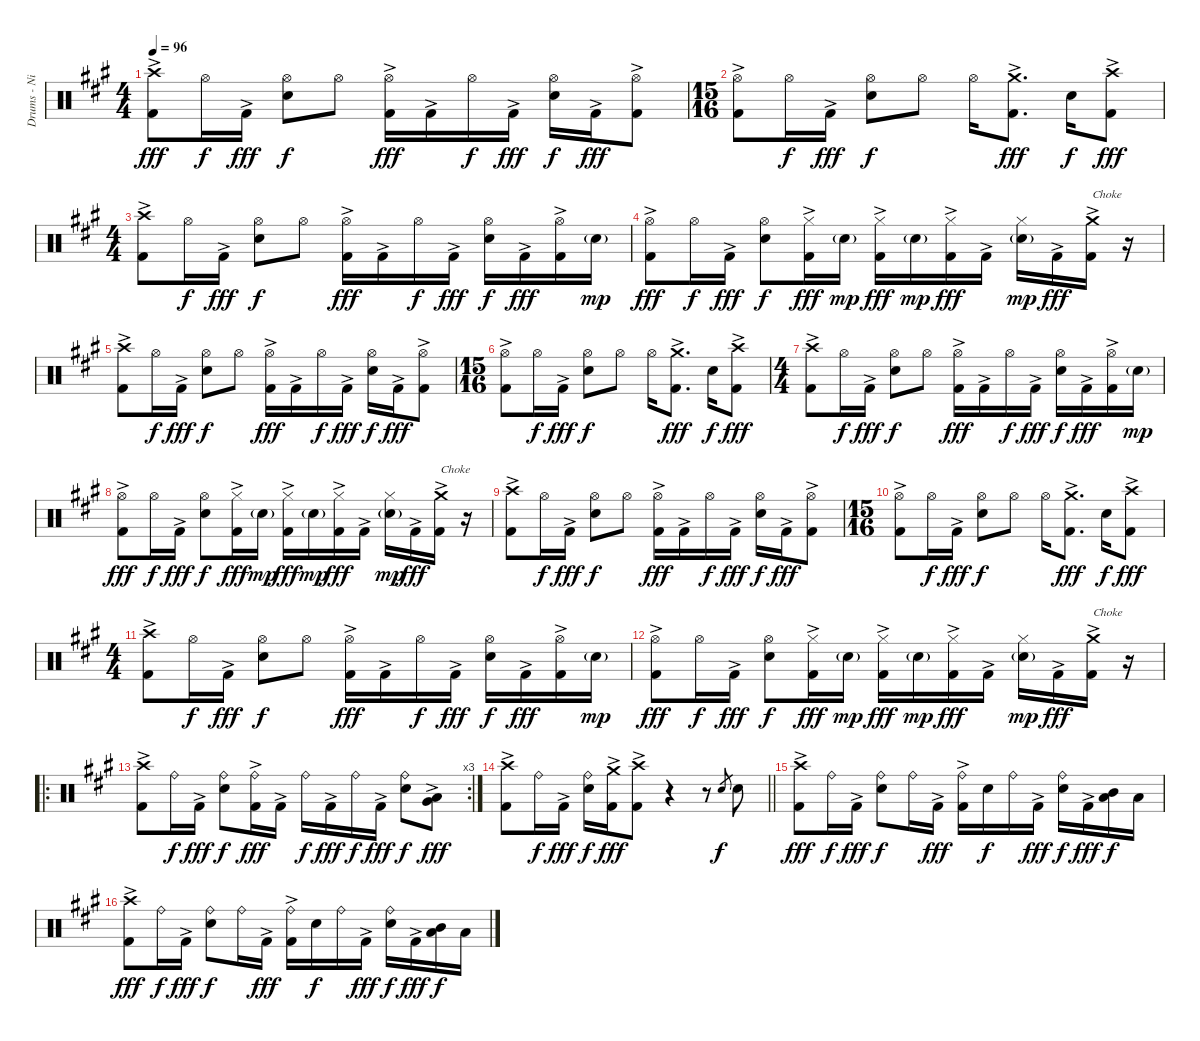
\track ("Drums - Nick Menza" "Drums - Ni") {instrument percussion}
\staff {score}
\articulation defaults
\ts (4 4)
\tempo 96
\clef neutral
\ks f#minor
("Crash high (hit)" "Kick (hit) 2"{ac}).8{dy fff} "Hi-Hat (open)".16{dy f} "Kick (hit) 2"{ac}.16{dy fff} ("Hi-Hat (open)" "Snare (hit) 2").8{dy f} "Hi-Hat (open)".8 ("Hi-Hat (open)" "Kick (hit) 2"{ac}).16{dy fff} "Kick (hit) 2"{ac}.16 "Hi-Hat (open)".16{dy f} "Kick (hit) 2"{ac}.16{dy fff} ("Hi-Hat (open)" "Snare (hit) 2").16{dy f} "Kick (hit) 2"{ac}.16{dy fff} ("Hi-Hat (open)" "Kick (hit) 2"{ac}).8 |
\ts (15 16)
("Hi-Hat (open)" "Kick (hit) 2"{ac}).8 "Hi-Hat (open)".16{dy f} "Kick (hit) 2"{ac}.16{dy fff} ("Hi-Hat (open)" "Snare (hit) 2").8{dy f} "Hi-Hat (open)".8 "Hi-Hat (open)".16 ("Crash medium (hit)" "Kick (hit) 2"{ac}).8{d dy fff} "Snare (hit) 2".16{dy f} ("Crash high (hit)" "Kick (hit) 2"{ac}).8{dy fff} |
\ts (4 4)
("Crash high (hit)" "Kick (hit) 2"{ac}).8 "Hi-Hat (open)".16{dy f} "Kick (hit) 2"{ac}.16{dy fff} ("Hi-Hat (open)" "Snare (hit) 2").8{dy f} "Hi-Hat (open)".8 ("Hi-Hat (open)" "Kick (hit) 2"{ac}).16{dy fff} "Kick (hit) 2"{ac}.16 "Hi-Hat (open)".16{dy f} "Kick (hit) 2"{ac}.16{dy fff} ("Hi-Hat (open)" "Snare (hit) 2").16{dy f} "Kick (hit) 2"{ac}.16{dy fff} ("Hi-Hat (open)" "Kick (hit) 2"{ac}).16 "Snare (hit) 2"{g}.16{dy mp} |
("Hi-Hat (open)" "Kick (hit) 2"{ac}).8{dy fff} "Hi-Hat (open)".16{dy f} "Kick (hit) 2"{ac}.16{dy fff} ("Hi-Hat (open)" "Snare (hit) 2").8{dy f} ("Hi-Hat (closed)" "Kick (hit) 2"{ac}).16{dy fff} "Snare (hit) 2"{g}.16{dy mp} ("Hi-Hat (closed)" "Kick (hit) 2"{ac}).16{dy fff} "Snare (hit) 2"{g}.16{dy mp} ("Hi-Hat (closed)" "Kick (hit) 2"{ac}).16{dy fff} "Kick (hit) 2"{ac}.16 ("Hi-Hat (closed)" "Snare (hit) 2"{g}).16{dy mp} "Kick (hit) 2"{ac}.16{dy fff} ("Crash medium (hit)" "Kick (hit) 2"{ac}).16{txt "Choke"} r.16 |
("Crash high (hit)" "Kick (hit) 2"{ac}).8 "Hi-Hat (open)".16{dy f} "Kick (hit) 2"{ac}.16{dy fff} ("Hi-Hat (open)" "Snare (hit) 2").8{dy f} "Hi-Hat (open)".8 ("Hi-Hat (open)" "Kick (hit) 2"{ac}).16{dy fff} "Kick (hit) 2"{ac}.16 "Hi-Hat (open)".16{dy f} "Kick (hit) 2"{ac}.16{dy fff} ("Hi-Hat (open)" "Snare (hit) 2").16{dy f} "Kick (hit) 2"{ac}.16{dy fff} ("Hi-Hat (open)" "Kick (hit) 2"{ac}).8 |
\ts (15 16)
("Hi-Hat (open)" "Kick (hit) 2"{ac}).8 "Hi-Hat (open)".16{dy f} "Kick (hit) 2"{ac}.16{dy fff} ("Hi-Hat (open)" "Snare (hit) 2").8{dy f} "Hi-Hat (open)".8 "Hi-Hat (open)".16 ("Crash medium (hit)" "Kick (hit) 2"{ac}).8{d dy fff} "Snare (hit) 2".16{dy f} ("Crash high (hit)" "Kick (hit) 2"{ac}).8{dy fff} |
\ts (4 4)
("Crash high (hit)" "Kick (hit) 2"{ac}).8 "Hi-Hat (open)".16{dy f} "Kick (hit) 2"{ac}.16{dy fff} ("Hi-Hat (open)" "Snare (hit) 2").8{dy f} "Hi-Hat (open)".8 ("Hi-Hat (open)" "Kick (hit) 2"{ac}).16{dy fff} "Kick (hit) 2"{ac}.16 "Hi-Hat (open)".16{dy f} "Kick (hit) 2"{ac}.16{dy fff} ("Hi-Hat (open)" "Snare (hit) 2").16{dy f} "Kick (hit) 2"{ac}.16{dy fff} ("Hi-Hat (open)" "Kick (hit) 2"{ac}).16 "Snare (hit) 2"{g}.16{dy mp} |
("Hi-Hat (open)" "Kick (hit) 2"{ac}).8{dy fff} "Hi-Hat (open)".16{dy f} "Kick (hit) 2"{ac}.16{dy fff} ("Hi-Hat (open)" "Snare (hit) 2").8{dy f} ("Hi-Hat (closed)" "Kick (hit) 2"{ac}).16{dy fff} "Snare (hit) 2"{g}.16{dy mp} ("Hi-Hat (closed)" "Kick (hit) 2"{ac}).16{dy fff} "Snare (hit) 2"{g}.16{dy mp} ("Hi-Hat (closed)" "Kick (hit) 2"{ac}).16{dy fff} "Kick (hit) 2"{ac}.16 ("Hi-Hat (closed)" "Snare (hit) 2"{g}).16{dy mp} "Kick (hit) 2"{ac}.16{dy fff} ("Crash medium (hit)" "Kick (hit) 2"{ac}).16{txt "Choke"} r.16 |
("Crash high (hit)" "Kick (hit) 2"{ac}).8 "Hi-Hat (open)".16{dy f} "Kick (hit) 2"{ac}.16{dy fff} ("Hi-Hat (open)" "Snare (hit) 2").8{dy f} "Hi-Hat (open)".8 ("Hi-Hat (open)" "Kick (hit) 2"{ac}).16{dy fff} "Kick (hit) 2"{ac}.16 "Hi-Hat (open)".16{dy f} "Kick (hit) 2"{ac}.16{dy fff} ("Hi-Hat (open)" "Snare (hit) 2").16{dy f} "Kick (hit) 2"{ac}.16{dy fff} ("Hi-Hat (open)" "Kick (hit) 2"{ac}).8 |
\ts (15 16)
("Hi-Hat (open)" "Kick (hit) 2"{ac}).8 "Hi-Hat (open)".16{dy f} "Kick (hit) 2"{ac}.16{dy fff} ("Hi-Hat (open)" "Snare (hit) 2").8{dy f} "Hi-Hat (open)".8 "Hi-Hat (open)".16 ("Crash medium (hit)" "Kick (hit) 2"{ac}).8{d dy fff} "Snare (hit) 2".16{dy f} ("Crash high (hit)" "Kick (hit) 2"{ac}).8{dy fff} |
\ts (4 4)
("Crash high (hit)" "Kick (hit) 2"{ac}).8 "Hi-Hat (open)".16{dy f} "Kick (hit) 2"{ac}.16{dy fff} ("Hi-Hat (open)" "Snare (hit) 2").8{dy f} "Hi-Hat (open)".8 ("Hi-Hat (open)" "Kick (hit) 2"{ac}).16{dy fff} "Kick (hit) 2"{ac}.16 "Hi-Hat (open)".16{dy f} "Kick (hit) 2"{ac}.16{dy fff} ("Hi-Hat (open)" "Snare (hit) 2").16{dy f} "Kick (hit) 2"{ac}.16{dy fff} ("Hi-Hat (open)" "Kick (hit) 2"{ac}).16 "Snare (hit) 2"{g}.16{dy mp} |
("Hi-Hat (open)" "Kick (hit) 2"{ac}).8{dy fff} "Hi-Hat (open)".16{dy f} "Kick (hit) 2"{ac}.16{dy fff} ("Hi-Hat (open)" "Snare (hit) 2").8{dy f} ("Hi-Hat (closed)" "Kick (hit) 2"{ac}).16{dy fff} "Snare (hit) 2"{g}.16{dy mp} ("Hi-Hat (closed)" "Kick (hit) 2"{ac}).16{dy fff} "Snare (hit) 2"{g}.16{dy mp} ("Hi-Hat (closed)" "Kick (hit) 2"{ac}).16{dy fff} "Kick (hit) 2"{ac}.16 ("Hi-Hat (closed)" "Snare (hit) 2"{g}).16{dy mp} "Kick (hit) 2"{ac}.16{dy fff} ("Crash medium (hit)" "Kick (hit) 2"{ac}).16{txt "Choke"} r.16 |
\ro
\rc 3
("Crash high (hit)" "Kick (hit) 2"{ac}).8 "Ride (bell)".16{dy f} "Kick (hit) 2"{ac}.16{dy fff} ("Ride (bell)" "Snare (hit) 2").8{dy f} ("Ride (bell)" "Kick (hit) 2"{ac}).16{dy fff} "Kick (hit) 2"{ac}.16 "Ride (bell)".16{dy f} "Kick (hit) 2"{ac}.16{dy fff} "Ride (bell)".16{dy f} "Kick (hit) 2"{ac}.16{dy fff} ("Ride (bell)" "Snare (hit) 2").8{dy f} ("Low Tom (hit)"{ac} "Very Low Tom (hit)"{ac}).8{dy fff} |
\barLineRight lightlight
("Crash high (hit)" "Kick (hit) 2"{ac}).8 "Ride (bell)".16{dy f} "Kick (hit) 2"{ac}.16{dy fff} ("Ride (bell)" "Snare (hit) 2").16{dy f} ("Crash medium (hit)" "Kick (hit) 2"{ac}).16{dy fff} ("Crash high (hit)" "Kick (hit) 2"{ac}).8 r.4 r.8 "Snare (hit) 2".8{gr dy f} "Snare (hit) 2".8 |
("Crash high (hit)" "Kick (hit) 2"{ac}).8{dy fff} "Ride (bell)".16{dy f} "Kick (hit) 2"{ac}.16{dy fff} ("Ride (bell)" "Snare (hit) 2").8{dy f} "Ride (bell)".16 "Kick (hit) 2"{ac}.16{dy fff} ("Ride (bell)" "Kick (hit) 2"{ac}).16 "Snare (hit) 2".16{dy f} "Ride (bell)".16 "Kick (hit) 2"{ac}.16{dy fff} ("Ride (bell)" "Snare (hit) 2").16{dy f} "Kick (hit) 2"{ac}.16{dy fff} ("Mid Tom (hit)" "Low Tom (hit)").16{dy f} "Low Tom (hit)".16 |
("Crash high (hit)" "Kick (hit) 2"{ac}).8{dy fff} "Ride (bell)".16{dy f} "Kick (hit) 2"{ac}.16{dy fff} ("Ride (bell)" "Snare (hit) 2").8{dy f} "Ride (bell)".16 "Kick (hit) 2"{ac}.16{dy fff} ("Ride (bell)" "Kick (hit) 2"{ac}).16 "Snare (hit) 2".16{dy f} "Ride (bell)".16 "Kick (hit) 2"{ac}.16{dy fff} ("Ride (bell)" "Snare (hit) 2").16{dy f} "Kick (hit) 2"{ac}.16{dy fff} ("Mid Tom (hit)" "Low Tom (hit)").16{dy f} "Low Tom (hit)".16
